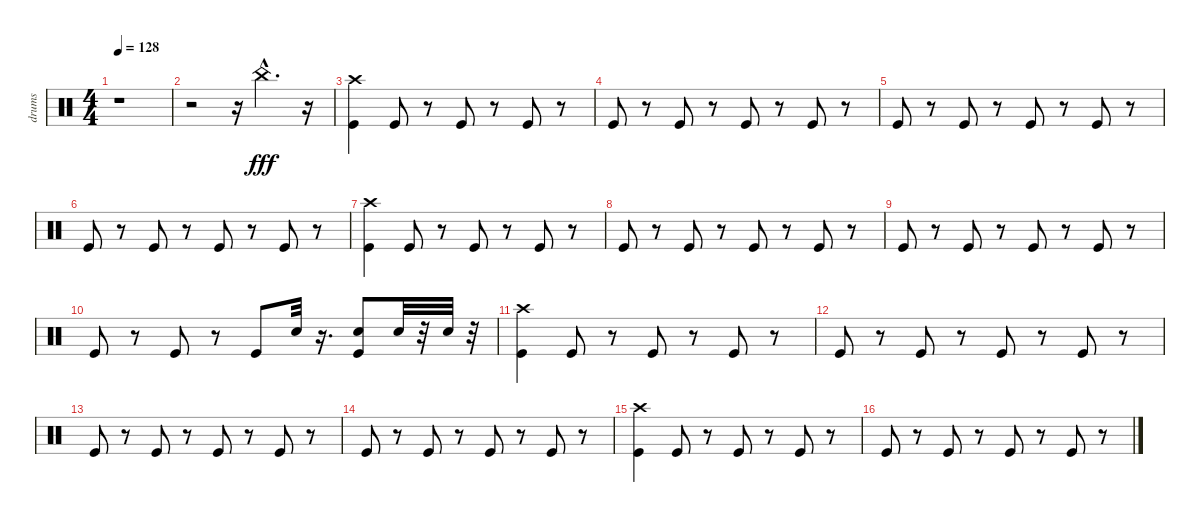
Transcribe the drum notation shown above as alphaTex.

\track ("drums" "drums") {instrument percussion}
\staff {score}
\articulation defaults
\ts (4 4)
\tempo 128
\clef neutral
\ks c
r.1{dy fff} |
r.2 r.16 "China (hit)"{hac}.4{d} r.16 |
("Kick (hit)" "Crash high (hit)").4 "Kick (hit)".8 r.8 "Kick (hit)".8 r.8 "Kick (hit)".8 r.8 |
"Kick (hit)".8 r.8 "Kick (hit)".8 r.8 "Kick (hit)".8 r.8 "Kick (hit)".8 r.8 |
"Kick (hit)".8 r.8 "Kick (hit)".8 r.8 "Kick (hit)".8 r.8 "Kick (hit)".8 r.8 |
"Kick (hit)".8 r.8 "Kick (hit)".8 r.8 "Kick (hit)".8 r.8 "Kick (hit)".8 r.8 |
("Kick (hit)" "Crash high (hit)").4 "Kick (hit)".8 r.8 "Kick (hit)".8 r.8 "Kick (hit)".8 r.8 |
"Kick (hit)".8 r.8 "Kick (hit)".8 r.8 "Kick (hit)".8 r.8 "Kick (hit)".8 r.8 |
"Kick (hit)".8 r.8 "Kick (hit)".8 r.8 "Kick (hit)".8 r.8 "Kick (hit)".8 r.8 |
"Kick (hit)".8 r.8 "Kick (hit)".8 r.8 "Kick (hit)".8 "Electric Snare (hit)".32 r.16{d} ("Electric Snare (hit)" "Kick (hit)").8 "Electric Snare (hit)".32 r.32 "Electric Snare (hit)".32 r.32 |
("Kick (hit)" "Crash high (hit)").4 "Kick (hit)".8 r.8 "Kick (hit)".8 r.8 "Kick (hit)".8 r.8 |
"Kick (hit)".8 r.8 "Kick (hit)".8 r.8 "Kick (hit)".8 r.8 "Kick (hit)".8 r.8 |
"Kick (hit)".8 r.8 "Kick (hit)".8 r.8 "Kick (hit)".8 r.8 "Kick (hit)".8 r.8 |
"Kick (hit)".8 r.8 "Kick (hit)".8 r.8 "Kick (hit)".8 r.8 "Kick (hit)".8 r.8 |
("Kick (hit)" "Crash high (hit)").4 "Kick (hit)".8 r.8 "Kick (hit)".8 r.8 "Kick (hit)".8 r.8 |
"Kick (hit)".8 r.8 "Kick (hit)".8 r.8 "Kick (hit)".8 r.8 "Kick (hit)".8 r.8
